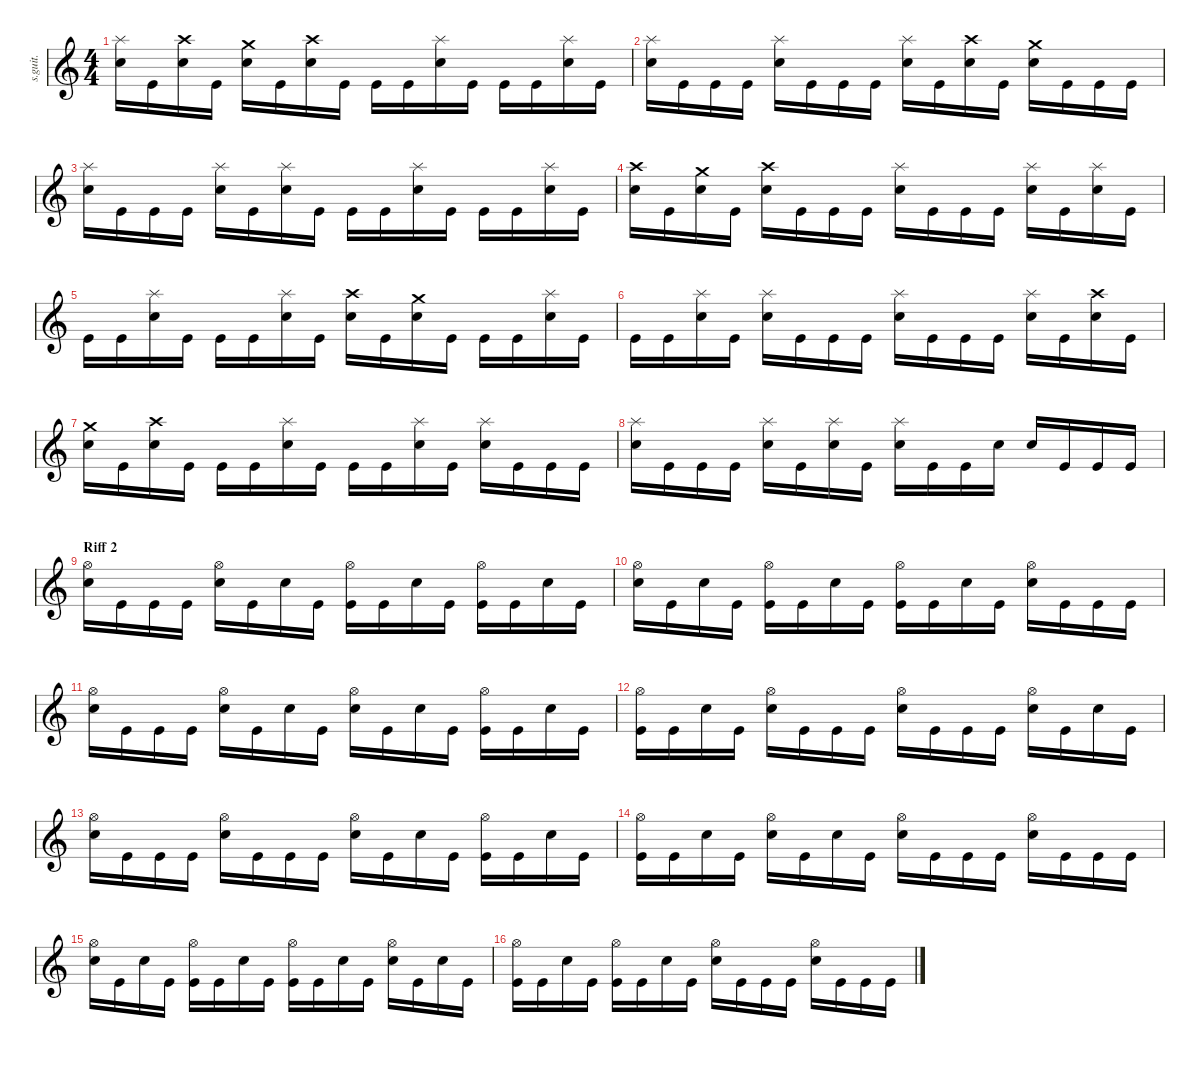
\defaultSystemsLayout 4
\hideDynamics
\bracketExtendMode nobrackets
\track ("Drumkit" "s.guit.") {instrument percussion}
\staff {score}
\articulation defaults
\ts (4 4)
\tempo (133 hide)
\clef g2
\ks c
("Splash (hit)" "Snare (hit) 2").16{lyrics (0 "") lyrics (1 "") lyrics (2 "") lyrics (3 "") lyrics (4 "") dy f} "Kick (hit)".16{lyrics (0 "") lyrics (1 "") lyrics (2 "") lyrics (3 "") lyrics (4 "")} ("Crash high (hit)" "Snare (hit) 2").16{lyrics (0 "") lyrics (1 "") lyrics (2 "") lyrics (3 "") lyrics (4 "")} "Kick (hit)".16{lyrics (0 "") lyrics (1 "") lyrics (2 "") lyrics (3 "") lyrics (4 "")} ("Crash medium (hit)" "Snare (hit) 2").16{lyrics (0 "") lyrics (1 "") lyrics (2 "") lyrics (3 "") lyrics (4 "")} "Kick (hit)".16{lyrics (0 "") lyrics (1 "") lyrics (2 "") lyrics (3 "") lyrics (4 "")} ("Crash high (hit)" "Snare (hit) 2").16{lyrics (0 "") lyrics (1 "") lyrics (2 "") lyrics (3 "") lyrics (4 "")} "Kick (hit)".16{lyrics (0 "") lyrics (1 "") lyrics (2 "") lyrics (3 "") lyrics (4 "")} "Kick (hit)".16{lyrics (0 "") lyrics (1 "") lyrics (2 "") lyrics (3 "") lyrics (4 "")} "Kick (hit)".16{lyrics (0 "") lyrics (1 "") lyrics (2 "") lyrics (3 "") lyrics (4 "")} ("Splash (hit)" "Snare (hit) 2").16{lyrics (0 "") lyrics (1 "") lyrics (2 "") lyrics (3 "") lyrics (4 "")} "Kick (hit)".16{lyrics (0 "") lyrics (1 "") lyrics (2 "") lyrics (3 "") lyrics (4 "")} "Kick (hit)".16{lyrics (0 "") lyrics (1 "") lyrics (2 "") lyrics (3 "") lyrics (4 "")} "Kick (hit)".16{lyrics (0 "") lyrics (1 "") lyrics (2 "") lyrics (3 "") lyrics (4 "")} ("Splash (hit)" "Snare (hit) 2").16{lyrics (0 "") lyrics (1 "") lyrics (2 "") lyrics (3 "") lyrics (4 "")} "Kick (hit)".16{lyrics (0 "") lyrics (1 "") lyrics (2 "") lyrics (3 "") lyrics (4 "")} |
("Splash (hit)" "Snare (hit) 2").16{lyrics (0 "") lyrics (1 "") lyrics (2 "") lyrics (3 "") lyrics (4 "")} "Kick (hit)".16{lyrics (0 "") lyrics (1 "") lyrics (2 "") lyrics (3 "") lyrics (4 "")} "Kick (hit)".16{lyrics (0 "") lyrics (1 "") lyrics (2 "") lyrics (3 "") lyrics (4 "")} "Kick (hit)".16{lyrics (0 "") lyrics (1 "") lyrics (2 "") lyrics (3 "") lyrics (4 "")} ("Splash (hit)" "Snare (hit) 2").16{lyrics (0 "") lyrics (1 "") lyrics (2 "") lyrics (3 "") lyrics (4 "")} "Kick (hit)".16{lyrics (0 "") lyrics (1 "") lyrics (2 "") lyrics (3 "") lyrics (4 "")} "Kick (hit)".16{lyrics (0 "") lyrics (1 "") lyrics (2 "") lyrics (3 "") lyrics (4 "")} "Kick (hit)".16{lyrics (0 "") lyrics (1 "") lyrics (2 "") lyrics (3 "") lyrics (4 "")} ("Splash (hit)" "Snare (hit) 2").16{lyrics (0 "") lyrics (1 "") lyrics (2 "") lyrics (3 "") lyrics (4 "")} "Kick (hit)".16{lyrics (0 "") lyrics (1 "") lyrics (2 "") lyrics (3 "") lyrics (4 "")} ("Crash high (hit)" "Snare (hit) 2").16{lyrics (0 "") lyrics (1 "") lyrics (2 "") lyrics (3 "") lyrics (4 "")} "Kick (hit)".16{lyrics (0 "") lyrics (1 "") lyrics (2 "") lyrics (3 "") lyrics (4 "")} ("Crash medium (hit)" "Snare (hit) 2").16{lyrics (0 "") lyrics (1 "") lyrics (2 "") lyrics (3 "") lyrics (4 "")} "Kick (hit)".16{lyrics (0 "") lyrics (1 "") lyrics (2 "") lyrics (3 "") lyrics (4 "")} "Kick (hit)".16{lyrics (0 "") lyrics (1 "") lyrics (2 "") lyrics (3 "") lyrics (4 "")} "Kick (hit)".16{lyrics (0 "") lyrics (1 "") lyrics (2 "") lyrics (3 "") lyrics (4 "")} |
("Splash (hit)" "Snare (hit) 2").16{lyrics (0 "") lyrics (1 "") lyrics (2 "") lyrics (3 "") lyrics (4 "")} "Kick (hit)".16{lyrics (0 "") lyrics (1 "") lyrics (2 "") lyrics (3 "") lyrics (4 "")} "Kick (hit)".16{lyrics (0 "") lyrics (1 "") lyrics (2 "") lyrics (3 "") lyrics (4 "")} "Kick (hit)".16{lyrics (0 "") lyrics (1 "") lyrics (2 "") lyrics (3 "") lyrics (4 "")} ("Splash (hit)" "Snare (hit) 2").16{lyrics (0 "") lyrics (1 "") lyrics (2 "") lyrics (3 "") lyrics (4 "")} "Kick (hit)".16{lyrics (0 "") lyrics (1 "") lyrics (2 "") lyrics (3 "") lyrics (4 "")} ("Splash (hit)" "Snare (hit) 2").16{lyrics (0 "") lyrics (1 "") lyrics (2 "") lyrics (3 "") lyrics (4 "")} "Kick (hit)".16{lyrics (0 "") lyrics (1 "") lyrics (2 "") lyrics (3 "") lyrics (4 "")} "Kick (hit)".16{lyrics (0 "") lyrics (1 "") lyrics (2 "") lyrics (3 "") lyrics (4 "")} "Kick (hit)".16{lyrics (0 "") lyrics (1 "") lyrics (2 "") lyrics (3 "") lyrics (4 "")} ("Splash (hit)" "Snare (hit) 2").16{lyrics (0 "") lyrics (1 "") lyrics (2 "") lyrics (3 "") lyrics (4 "")} "Kick (hit)".16{lyrics (0 "") lyrics (1 "") lyrics (2 "") lyrics (3 "") lyrics (4 "")} "Kick (hit)".16{lyrics (0 "") lyrics (1 "") lyrics (2 "") lyrics (3 "") lyrics (4 "")} "Kick (hit)".16{lyrics (0 "") lyrics (1 "") lyrics (2 "") lyrics (3 "") lyrics (4 "")} ("Splash (hit)" "Snare (hit) 2").16{lyrics (0 "") lyrics (1 "") lyrics (2 "") lyrics (3 "") lyrics (4 "")} "Kick (hit)".16{lyrics (0 "") lyrics (1 "") lyrics (2 "") lyrics (3 "") lyrics (4 "")} |
("Crash high (hit)" "Snare (hit) 2").16{lyrics (0 "") lyrics (1 "") lyrics (2 "") lyrics (3 "") lyrics (4 "")} "Kick (hit)".16{lyrics (0 "") lyrics (1 "") lyrics (2 "") lyrics (3 "") lyrics (4 "")} ("Crash medium (hit)" "Snare (hit) 2").16{lyrics (0 "") lyrics (1 "") lyrics (2 "") lyrics (3 "") lyrics (4 "")} "Kick (hit)".16{lyrics (0 "") lyrics (1 "") lyrics (2 "") lyrics (3 "") lyrics (4 "")} ("Crash high (hit)" "Snare (hit) 2").16{lyrics (0 "") lyrics (1 "") lyrics (2 "") lyrics (3 "") lyrics (4 "")} "Kick (hit)".16{lyrics (0 "") lyrics (1 "") lyrics (2 "") lyrics (3 "") lyrics (4 "")} "Kick (hit)".16{lyrics (0 "") lyrics (1 "") lyrics (2 "") lyrics (3 "") lyrics (4 "")} "Kick (hit)".16{lyrics (0 "") lyrics (1 "") lyrics (2 "") lyrics (3 "") lyrics (4 "")} ("Splash (hit)" "Snare (hit) 2").16{lyrics (0 "") lyrics (1 "") lyrics (2 "") lyrics (3 "") lyrics (4 "")} "Kick (hit)".16{lyrics (0 "") lyrics (1 "") lyrics (2 "") lyrics (3 "") lyrics (4 "")} "Kick (hit)".16{lyrics (0 "") lyrics (1 "") lyrics (2 "") lyrics (3 "") lyrics (4 "")} "Kick (hit)".16{lyrics (0 "") lyrics (1 "") lyrics (2 "") lyrics (3 "") lyrics (4 "")} ("Splash (hit)" "Snare (hit) 2").16{lyrics (0 "") lyrics (1 "") lyrics (2 "") lyrics (3 "") lyrics (4 "")} "Kick (hit)".16{lyrics (0 "") lyrics (1 "") lyrics (2 "") lyrics (3 "") lyrics (4 "")} ("Splash (hit)" "Snare (hit) 2").16{lyrics (0 "") lyrics (1 "") lyrics (2 "") lyrics (3 "") lyrics (4 "")} "Kick (hit)".16{lyrics (0 "") lyrics (1 "") lyrics (2 "") lyrics (3 "") lyrics (4 "")} |
"Kick (hit)".16{lyrics (0 "") lyrics (1 "") lyrics (2 "") lyrics (3 "") lyrics (4 "")} "Kick (hit)".16{lyrics (0 "") lyrics (1 "") lyrics (2 "") lyrics (3 "") lyrics (4 "")} ("Splash (hit)" "Snare (hit) 2").16{lyrics (0 "") lyrics (1 "") lyrics (2 "") lyrics (3 "") lyrics (4 "")} "Kick (hit)".16{lyrics (0 "") lyrics (1 "") lyrics (2 "") lyrics (3 "") lyrics (4 "")} "Kick (hit)".16{lyrics (0 "") lyrics (1 "") lyrics (2 "") lyrics (3 "") lyrics (4 "")} "Kick (hit)".16{lyrics (0 "") lyrics (1 "") lyrics (2 "") lyrics (3 "") lyrics (4 "")} ("Splash (hit)" "Snare (hit) 2").16{lyrics (0 "") lyrics (1 "") lyrics (2 "") lyrics (3 "") lyrics (4 "")} "Kick (hit)".16{lyrics (0 "") lyrics (1 "") lyrics (2 "") lyrics (3 "") lyrics (4 "")} ("Crash high (hit)" "Snare (hit) 2").16{lyrics (0 "") lyrics (1 "") lyrics (2 "") lyrics (3 "") lyrics (4 "")} "Kick (hit)".16{lyrics (0 "") lyrics (1 "") lyrics (2 "") lyrics (3 "") lyrics (4 "")} ("Crash medium (hit)" "Snare (hit) 2").16{lyrics (0 "") lyrics (1 "") lyrics (2 "") lyrics (3 "") lyrics (4 "")} "Kick (hit)".16{lyrics (0 "") lyrics (1 "") lyrics (2 "") lyrics (3 "") lyrics (4 "")} "Kick (hit)".16{lyrics (0 "") lyrics (1 "") lyrics (2 "") lyrics (3 "") lyrics (4 "")} "Kick (hit)".16{lyrics (0 "") lyrics (1 "") lyrics (2 "") lyrics (3 "") lyrics (4 "")} ("Splash (hit)" "Snare (hit) 2").16{lyrics (0 "") lyrics (1 "") lyrics (2 "") lyrics (3 "") lyrics (4 "")} "Kick (hit)".16{lyrics (0 "") lyrics (1 "") lyrics (2 "") lyrics (3 "") lyrics (4 "")} |
"Kick (hit)".16{lyrics (0 "") lyrics (1 "") lyrics (2 "") lyrics (3 "") lyrics (4 "")} "Kick (hit)".16{lyrics (0 "") lyrics (1 "") lyrics (2 "") lyrics (3 "") lyrics (4 "")} ("Splash (hit)" "Snare (hit) 2").16{lyrics (0 "") lyrics (1 "") lyrics (2 "") lyrics (3 "") lyrics (4 "")} "Kick (hit)".16{lyrics (0 "") lyrics (1 "") lyrics (2 "") lyrics (3 "") lyrics (4 "")} ("Splash (hit)" "Snare (hit) 2").16{lyrics (0 "") lyrics (1 "") lyrics (2 "") lyrics (3 "") lyrics (4 "")} "Kick (hit)".16{lyrics (0 "") lyrics (1 "") lyrics (2 "") lyrics (3 "") lyrics (4 "")} "Kick (hit)".16{lyrics (0 "") lyrics (1 "") lyrics (2 "") lyrics (3 "") lyrics (4 "")} "Kick (hit)".16{lyrics (0 "") lyrics (1 "") lyrics (2 "") lyrics (3 "") lyrics (4 "")} ("Splash (hit)" "Snare (hit) 2").16{lyrics (0 "") lyrics (1 "") lyrics (2 "") lyrics (3 "") lyrics (4 "")} "Kick (hit)".16{lyrics (0 "") lyrics (1 "") lyrics (2 "") lyrics (3 "") lyrics (4 "")} "Kick (hit)".16{lyrics (0 "") lyrics (1 "") lyrics (2 "") lyrics (3 "") lyrics (4 "")} "Kick (hit)".16{lyrics (0 "") lyrics (1 "") lyrics (2 "") lyrics (3 "") lyrics (4 "")} ("Splash (hit)" "Snare (hit) 2").16{lyrics (0 "") lyrics (1 "") lyrics (2 "") lyrics (3 "") lyrics (4 "")} "Kick (hit)".16{lyrics (0 "") lyrics (1 "") lyrics (2 "") lyrics (3 "") lyrics (4 "")} ("Crash high (hit)" "Snare (hit) 2").16{lyrics (0 "") lyrics (1 "") lyrics (2 "") lyrics (3 "") lyrics (4 "")} "Kick (hit)".16{lyrics (0 "") lyrics (1 "") lyrics (2 "") lyrics (3 "") lyrics (4 "")} |
("Crash medium (hit)" "Snare (hit) 2").16{lyrics (0 "") lyrics (1 "") lyrics (2 "") lyrics (3 "") lyrics (4 "")} "Kick (hit)".16{lyrics (0 "") lyrics (1 "") lyrics (2 "") lyrics (3 "") lyrics (4 "")} ("Crash high (hit)" "Snare (hit) 2").16{lyrics (0 "") lyrics (1 "") lyrics (2 "") lyrics (3 "") lyrics (4 "")} "Kick (hit)".16{lyrics (0 "") lyrics (1 "") lyrics (2 "") lyrics (3 "") lyrics (4 "")} "Kick (hit)".16{lyrics (0 "") lyrics (1 "") lyrics (2 "") lyrics (3 "") lyrics (4 "")} "Kick (hit)".16{lyrics (0 "") lyrics (1 "") lyrics (2 "") lyrics (3 "") lyrics (4 "")} ("Splash (hit)" "Snare (hit) 2").16{lyrics (0 "") lyrics (1 "") lyrics (2 "") lyrics (3 "") lyrics (4 "")} "Kick (hit)".16{lyrics (0 "") lyrics (1 "") lyrics (2 "") lyrics (3 "") lyrics (4 "")} "Kick (hit)".16{lyrics (0 "") lyrics (1 "") lyrics (2 "") lyrics (3 "") lyrics (4 "")} "Kick (hit)".16{lyrics (0 "") lyrics (1 "") lyrics (2 "") lyrics (3 "") lyrics (4 "")} ("Splash (hit)" "Snare (hit) 2").16{lyrics (0 "") lyrics (1 "") lyrics (2 "") lyrics (3 "") lyrics (4 "")} "Kick (hit)".16{lyrics (0 "") lyrics (1 "") lyrics (2 "") lyrics (3 "") lyrics (4 "")} ("Splash (hit)" "Snare (hit) 2").16{lyrics (0 "") lyrics (1 "") lyrics (2 "") lyrics (3 "") lyrics (4 "")} "Kick (hit)".16{lyrics (0 "") lyrics (1 "") lyrics (2 "") lyrics (3 "") lyrics (4 "")} "Kick (hit)".16{lyrics (0 "") lyrics (1 "") lyrics (2 "") lyrics (3 "") lyrics (4 "")} "Kick (hit)".16{lyrics (0 "") lyrics (1 "") lyrics (2 "") lyrics (3 "") lyrics (4 "")} |
("Splash (hit)" "Snare (hit) 2").16{lyrics (0 "") lyrics (1 "") lyrics (2 "") lyrics (3 "") lyrics (4 "")} "Kick (hit)".16{lyrics (0 "") lyrics (1 "") lyrics (2 "") lyrics (3 "") lyrics (4 "")} "Kick (hit)".16{lyrics (0 "") lyrics (1 "") lyrics (2 "") lyrics (3 "") lyrics (4 "")} "Kick (hit)".16{lyrics (0 "") lyrics (1 "") lyrics (2 "") lyrics (3 "") lyrics (4 "")} ("Splash (hit)" "Snare (hit) 2").16{lyrics (0 "") lyrics (1 "") lyrics (2 "") lyrics (3 "") lyrics (4 "")} "Kick (hit)".16{lyrics (0 "") lyrics (1 "") lyrics (2 "") lyrics (3 "") lyrics (4 "")} ("Splash (hit)" "Snare (hit) 2").16{lyrics (0 "") lyrics (1 "") lyrics (2 "") lyrics (3 "") lyrics (4 "")} "Kick (hit)".16{lyrics (0 "") lyrics (1 "") lyrics (2 "") lyrics (3 "") lyrics (4 "")} ("Splash (hit)" "Snare (hit) 2").16{lyrics (0 "") lyrics (1 "") lyrics (2 "") lyrics (3 "") lyrics (4 "")} "Kick (hit)".16{lyrics (0 "") lyrics (1 "") lyrics (2 "") lyrics (3 "") lyrics (4 "")} "Kick (hit)".16{lyrics (0 "") lyrics (1 "") lyrics (2 "") lyrics (3 "") lyrics (4 "")} "Snare (hit) 2".16{lyrics (0 "") lyrics (1 "") lyrics (2 "") lyrics (3 "") lyrics (4 "")} "Snare (hit) 2".16{lyrics (0 "") lyrics (1 "") lyrics (2 "") lyrics (3 "") lyrics (4 "")} "Kick (hit)".16{lyrics (0 "") lyrics (1 "") lyrics (2 "") lyrics (3 "") lyrics (4 "")} "Kick (hit)".16{lyrics (0 "") lyrics (1 "") lyrics (2 "") lyrics (3 "") lyrics (4 "")} "Kick (hit)".16{lyrics (0 "") lyrics (1 "") lyrics (2 "") lyrics (3 "") lyrics (4 "")} |
\section ("" "Riff 2")
("Hi-Hat (open)" "Snare (hit) 2").16{lyrics (0 "") lyrics (1 "") lyrics (2 "") lyrics (3 "") lyrics (4 "")} "Kick (hit)".16{lyrics (0 "") lyrics (1 "") lyrics (2 "") lyrics (3 "") lyrics (4 "")} "Kick (hit)".16{lyrics (0 "") lyrics (1 "") lyrics (2 "") lyrics (3 "") lyrics (4 "")} "Kick (hit)".16{lyrics (0 "") lyrics (1 "") lyrics (2 "") lyrics (3 "") lyrics (4 "")} ("Hi-Hat (open)" "Snare (hit) 2").16{lyrics (0 "") lyrics (1 "") lyrics (2 "") lyrics (3 "") lyrics (4 "")} "Kick (hit)".16{lyrics (0 "") lyrics (1 "") lyrics (2 "") lyrics (3 "") lyrics (4 "")} "Snare (hit) 2".16{lyrics (0 "") lyrics (1 "") lyrics (2 "") lyrics (3 "") lyrics (4 "")} "Kick (hit)".16{lyrics (0 "") lyrics (1 "") lyrics (2 "") lyrics (3 "") lyrics (4 "")} ("Hi-Hat (open)" "Kick (hit)").16{lyrics (0 "") lyrics (1 "") lyrics (2 "") lyrics (3 "") lyrics (4 "")} "Kick (hit)".16{lyrics (0 "") lyrics (1 "") lyrics (2 "") lyrics (3 "") lyrics (4 "")} "Snare (hit) 2".16{lyrics (0 "") lyrics (1 "") lyrics (2 "") lyrics (3 "") lyrics (4 "")} "Kick (hit)".16{lyrics (0 "") lyrics (1 "") lyrics (2 "") lyrics (3 "") lyrics (4 "")} ("Hi-Hat (open)" "Kick (hit)").16{lyrics (0 "") lyrics (1 "") lyrics (2 "") lyrics (3 "") lyrics (4 "")} "Kick (hit)".16{lyrics (0 "") lyrics (1 "") lyrics (2 "") lyrics (3 "") lyrics (4 "")} "Snare (hit) 2".16{lyrics (0 "") lyrics (1 "") lyrics (2 "") lyrics (3 "") lyrics (4 "")} "Kick (hit)".16{lyrics (0 "") lyrics (1 "") lyrics (2 "") lyrics (3 "") lyrics (4 "")} |
("Hi-Hat (open)" "Snare (hit) 2").16{lyrics (0 "") lyrics (1 "") lyrics (2 "") lyrics (3 "") lyrics (4 "")} "Kick (hit)".16{lyrics (0 "") lyrics (1 "") lyrics (2 "") lyrics (3 "") lyrics (4 "")} "Snare (hit) 2".16{lyrics (0 "") lyrics (1 "") lyrics (2 "") lyrics (3 "") lyrics (4 "")} "Kick (hit)".16{lyrics (0 "") lyrics (1 "") lyrics (2 "") lyrics (3 "") lyrics (4 "")} ("Hi-Hat (open)" "Kick (hit)").16{lyrics (0 "") lyrics (1 "") lyrics (2 "") lyrics (3 "") lyrics (4 "")} "Kick (hit)".16{lyrics (0 "") lyrics (1 "") lyrics (2 "") lyrics (3 "") lyrics (4 "")} "Snare (hit) 2".16{lyrics (0 "") lyrics (1 "") lyrics (2 "") lyrics (3 "") lyrics (4 "")} "Kick (hit)".16{lyrics (0 "") lyrics (1 "") lyrics (2 "") lyrics (3 "") lyrics (4 "")} ("Hi-Hat (open)" "Kick (hit)").16{lyrics (0 "") lyrics (1 "") lyrics (2 "") lyrics (3 "") lyrics (4 "")} "Kick (hit)".16{lyrics (0 "") lyrics (1 "") lyrics (2 "") lyrics (3 "") lyrics (4 "")} "Snare (hit) 2".16{lyrics (0 "") lyrics (1 "") lyrics (2 "") lyrics (3 "") lyrics (4 "")} "Kick (hit)".16{lyrics (0 "") lyrics (1 "") lyrics (2 "") lyrics (3 "") lyrics (4 "")} ("Hi-Hat (open)" "Snare (hit) 2").16{lyrics (0 "") lyrics (1 "") lyrics (2 "") lyrics (3 "") lyrics (4 "")} "Kick (hit)".16{lyrics (0 "") lyrics (1 "") lyrics (2 "") lyrics (3 "") lyrics (4 "")} "Kick (hit)".16{lyrics (0 "") lyrics (1 "") lyrics (2 "") lyrics (3 "") lyrics (4 "")} "Kick (hit)".16{lyrics (0 "") lyrics (1 "") lyrics (2 "") lyrics (3 "") lyrics (4 "")} |
("Hi-Hat (open)" "Snare (hit) 2").16{lyrics (0 "") lyrics (1 "") lyrics (2 "") lyrics (3 "") lyrics (4 "")} "Kick (hit)".16{lyrics (0 "") lyrics (1 "") lyrics (2 "") lyrics (3 "") lyrics (4 "")} "Kick (hit)".16{lyrics (0 "") lyrics (1 "") lyrics (2 "") lyrics (3 "") lyrics (4 "")} "Kick (hit)".16{lyrics (0 "") lyrics (1 "") lyrics (2 "") lyrics (3 "") lyrics (4 "")} ("Hi-Hat (open)" "Snare (hit) 2").16{lyrics (0 "") lyrics (1 "") lyrics (2 "") lyrics (3 "") lyrics (4 "")} "Kick (hit)".16{lyrics (0 "") lyrics (1 "") lyrics (2 "") lyrics (3 "") lyrics (4 "")} "Snare (hit) 2".16{lyrics (0 "") lyrics (1 "") lyrics (2 "") lyrics (3 "") lyrics (4 "")} "Kick (hit)".16{lyrics (0 "") lyrics (1 "") lyrics (2 "") lyrics (3 "") lyrics (4 "")} ("Hi-Hat (open)" "Snare (hit) 2").16{lyrics (0 "") lyrics (1 "") lyrics (2 "") lyrics (3 "") lyrics (4 "")} "Kick (hit)".16{lyrics (0 "") lyrics (1 "") lyrics (2 "") lyrics (3 "") lyrics (4 "")} "Snare (hit) 2".16{lyrics (0 "") lyrics (1 "") lyrics (2 "") lyrics (3 "") lyrics (4 "")} "Kick (hit)".16{lyrics (0 "") lyrics (1 "") lyrics (2 "") lyrics (3 "") lyrics (4 "")} ("Hi-Hat (open)" "Kick (hit)").16{lyrics (0 "") lyrics (1 "") lyrics (2 "") lyrics (3 "") lyrics (4 "")} "Kick (hit)".16{lyrics (0 "") lyrics (1 "") lyrics (2 "") lyrics (3 "") lyrics (4 "")} "Snare (hit) 2".16{lyrics (0 "") lyrics (1 "") lyrics (2 "") lyrics (3 "") lyrics (4 "")} "Kick (hit)".16{lyrics (0 "") lyrics (1 "") lyrics (2 "") lyrics (3 "") lyrics (4 "")} |
("Hi-Hat (open)" "Kick (hit)").16{lyrics (0 "") lyrics (1 "") lyrics (2 "") lyrics (3 "") lyrics (4 "")} "Kick (hit)".16{lyrics (0 "") lyrics (1 "") lyrics (2 "") lyrics (3 "") lyrics (4 "")} "Snare (hit) 2".16{lyrics (0 "") lyrics (1 "") lyrics (2 "") lyrics (3 "") lyrics (4 "")} "Kick (hit)".16{lyrics (0 "") lyrics (1 "") lyrics (2 "") lyrics (3 "") lyrics (4 "")} ("Hi-Hat (open)" "Snare (hit) 2").16{lyrics (0 "") lyrics (1 "") lyrics (2 "") lyrics (3 "") lyrics (4 "")} "Kick (hit)".16{lyrics (0 "") lyrics (1 "") lyrics (2 "") lyrics (3 "") lyrics (4 "")} "Kick (hit)".16{lyrics (0 "") lyrics (1 "") lyrics (2 "") lyrics (3 "") lyrics (4 "")} "Kick (hit)".16{lyrics (0 "") lyrics (1 "") lyrics (2 "") lyrics (3 "") lyrics (4 "")} ("Hi-Hat (open)" "Snare (hit) 2").16{lyrics (0 "") lyrics (1 "") lyrics (2 "") lyrics (3 "") lyrics (4 "")} "Kick (hit)".16{lyrics (0 "") lyrics (1 "") lyrics (2 "") lyrics (3 "") lyrics (4 "")} "Kick (hit)".16{lyrics (0 "") lyrics (1 "") lyrics (2 "") lyrics (3 "") lyrics (4 "")} "Kick (hit)".16{lyrics (0 "") lyrics (1 "") lyrics (2 "") lyrics (3 "") lyrics (4 "")} ("Hi-Hat (open)" "Snare (hit) 2").16{lyrics (0 "") lyrics (1 "") lyrics (2 "") lyrics (3 "") lyrics (4 "")} "Kick (hit)".16{lyrics (0 "") lyrics (1 "") lyrics (2 "") lyrics (3 "") lyrics (4 "")} "Snare (hit) 2".16{lyrics (0 "") lyrics (1 "") lyrics (2 "") lyrics (3 "") lyrics (4 "")} "Kick (hit)".16{lyrics (0 "") lyrics (1 "") lyrics (2 "") lyrics (3 "") lyrics (4 "")} |
("Hi-Hat (open)" "Snare (hit) 2").16{lyrics (0 "") lyrics (1 "") lyrics (2 "") lyrics (3 "") lyrics (4 "")} "Kick (hit)".16{lyrics (0 "") lyrics (1 "") lyrics (2 "") lyrics (3 "") lyrics (4 "")} "Kick (hit)".16{lyrics (0 "") lyrics (1 "") lyrics (2 "") lyrics (3 "") lyrics (4 "")} "Kick (hit)".16{lyrics (0 "") lyrics (1 "") lyrics (2 "") lyrics (3 "") lyrics (4 "")} ("Hi-Hat (open)" "Snare (hit) 2").16{lyrics (0 "") lyrics (1 "") lyrics (2 "") lyrics (3 "") lyrics (4 "")} "Kick (hit)".16{lyrics (0 "") lyrics (1 "") lyrics (2 "") lyrics (3 "") lyrics (4 "")} "Kick (hit)".16{lyrics (0 "") lyrics (1 "") lyrics (2 "") lyrics (3 "") lyrics (4 "")} "Kick (hit)".16{lyrics (0 "") lyrics (1 "") lyrics (2 "") lyrics (3 "") lyrics (4 "")} ("Hi-Hat (open)" "Snare (hit) 2").16{lyrics (0 "") lyrics (1 "") lyrics (2 "") lyrics (3 "") lyrics (4 "")} "Kick (hit)".16{lyrics (0 "") lyrics (1 "") lyrics (2 "") lyrics (3 "") lyrics (4 "")} "Snare (hit) 2".16{lyrics (0 "") lyrics (1 "") lyrics (2 "") lyrics (3 "") lyrics (4 "")} "Kick (hit)".16{lyrics (0 "") lyrics (1 "") lyrics (2 "") lyrics (3 "") lyrics (4 "")} ("Hi-Hat (open)" "Kick (hit)").16{lyrics (0 "") lyrics (1 "") lyrics (2 "") lyrics (3 "") lyrics (4 "")} "Kick (hit)".16{lyrics (0 "") lyrics (1 "") lyrics (2 "") lyrics (3 "") lyrics (4 "")} "Snare (hit) 2".16{lyrics (0 "") lyrics (1 "") lyrics (2 "") lyrics (3 "") lyrics (4 "")} "Kick (hit)".16{lyrics (0 "") lyrics (1 "") lyrics (2 "") lyrics (3 "") lyrics (4 "")} |
("Hi-Hat (open)" "Kick (hit)").16{lyrics (0 "") lyrics (1 "") lyrics (2 "") lyrics (3 "") lyrics (4 "")} "Kick (hit)".16{lyrics (0 "") lyrics (1 "") lyrics (2 "") lyrics (3 "") lyrics (4 "")} "Snare (hit) 2".16{lyrics (0 "") lyrics (1 "") lyrics (2 "") lyrics (3 "") lyrics (4 "")} "Kick (hit)".16{lyrics (0 "") lyrics (1 "") lyrics (2 "") lyrics (3 "") lyrics (4 "")} ("Hi-Hat (open)" "Snare (hit) 2").16{lyrics (0 "") lyrics (1 "") lyrics (2 "") lyrics (3 "") lyrics (4 "")} "Kick (hit)".16{lyrics (0 "") lyrics (1 "") lyrics (2 "") lyrics (3 "") lyrics (4 "")} "Snare (hit) 2".16{lyrics (0 "") lyrics (1 "") lyrics (2 "") lyrics (3 "") lyrics (4 "")} "Kick (hit)".16{lyrics (0 "") lyrics (1 "") lyrics (2 "") lyrics (3 "") lyrics (4 "")} ("Hi-Hat (open)" "Snare (hit) 2").16{lyrics (0 "") lyrics (1 "") lyrics (2 "") lyrics (3 "") lyrics (4 "")} "Kick (hit)".16{lyrics (0 "") lyrics (1 "") lyrics (2 "") lyrics (3 "") lyrics (4 "")} "Kick (hit)".16{lyrics (0 "") lyrics (1 "") lyrics (2 "") lyrics (3 "") lyrics (4 "")} "Kick (hit)".16{lyrics (0 "") lyrics (1 "") lyrics (2 "") lyrics (3 "") lyrics (4 "")} ("Hi-Hat (open)" "Snare (hit) 2").16{lyrics (0 "") lyrics (1 "") lyrics (2 "") lyrics (3 "") lyrics (4 "")} "Kick (hit)".16{lyrics (0 "") lyrics (1 "") lyrics (2 "") lyrics (3 "") lyrics (4 "")} "Kick (hit)".16{lyrics (0 "") lyrics (1 "") lyrics (2 "") lyrics (3 "") lyrics (4 "")} "Kick (hit)".16{lyrics (0 "") lyrics (1 "") lyrics (2 "") lyrics (3 "") lyrics (4 "")} |
("Hi-Hat (open)" "Snare (hit) 2").16{lyrics (0 "") lyrics (1 "") lyrics (2 "") lyrics (3 "") lyrics (4 "")} "Kick (hit)".16{lyrics (0 "") lyrics (1 "") lyrics (2 "") lyrics (3 "") lyrics (4 "")} "Snare (hit) 2".16{lyrics (0 "") lyrics (1 "") lyrics (2 "") lyrics (3 "") lyrics (4 "")} "Kick (hit)".16{lyrics (0 "") lyrics (1 "") lyrics (2 "") lyrics (3 "") lyrics (4 "")} ("Hi-Hat (open)" "Kick (hit)").16{lyrics (0 "") lyrics (1 "") lyrics (2 "") lyrics (3 "") lyrics (4 "")} "Kick (hit)".16{lyrics (0 "") lyrics (1 "") lyrics (2 "") lyrics (3 "") lyrics (4 "")} "Snare (hit) 2".16{lyrics (0 "") lyrics (1 "") lyrics (2 "") lyrics (3 "") lyrics (4 "")} "Kick (hit)".16{lyrics (0 "") lyrics (1 "") lyrics (2 "") lyrics (3 "") lyrics (4 "")} ("Hi-Hat (open)" "Kick (hit)").16{lyrics (0 "") lyrics (1 "") lyrics (2 "") lyrics (3 "") lyrics (4 "")} "Kick (hit)".16{lyrics (0 "") lyrics (1 "") lyrics (2 "") lyrics (3 "") lyrics (4 "")} "Snare (hit) 2".16{lyrics (0 "") lyrics (1 "") lyrics (2 "") lyrics (3 "") lyrics (4 "")} "Kick (hit)".16{lyrics (0 "") lyrics (1 "") lyrics (2 "") lyrics (3 "") lyrics (4 "")} ("Hi-Hat (open)" "Snare (hit) 2").16{lyrics (0 "") lyrics (1 "") lyrics (2 "") lyrics (3 "") lyrics (4 "")} "Kick (hit)".16{lyrics (0 "") lyrics (1 "") lyrics (2 "") lyrics (3 "") lyrics (4 "")} "Snare (hit) 2".16{lyrics (0 "") lyrics (1 "") lyrics (2 "") lyrics (3 "") lyrics (4 "")} "Kick (hit)".16{lyrics (0 "") lyrics (1 "") lyrics (2 "") lyrics (3 "") lyrics (4 "")} |
("Hi-Hat (open)" "Kick (hit)").16{lyrics (0 "") lyrics (1 "") lyrics (2 "") lyrics (3 "") lyrics (4 "")} "Kick (hit)".16{lyrics (0 "") lyrics (1 "") lyrics (2 "") lyrics (3 "") lyrics (4 "")} "Snare (hit) 2".16{lyrics (0 "") lyrics (1 "") lyrics (2 "") lyrics (3 "") lyrics (4 "")} "Kick (hit)".16{lyrics (0 "") lyrics (1 "") lyrics (2 "") lyrics (3 "") lyrics (4 "")} ("Hi-Hat (open)" "Kick (hit)").16{lyrics (0 "") lyrics (1 "") lyrics (2 "") lyrics (3 "") lyrics (4 "")} "Kick (hit)".16{lyrics (0 "") lyrics (1 "") lyrics (2 "") lyrics (3 "") lyrics (4 "")} "Snare (hit) 2".16{lyrics (0 "") lyrics (1 "") lyrics (2 "") lyrics (3 "") lyrics (4 "")} "Kick (hit)".16{lyrics (0 "") lyrics (1 "") lyrics (2 "") lyrics (3 "") lyrics (4 "")} ("Hi-Hat (open)" "Snare (hit) 2").16{lyrics (0 "") lyrics (1 "") lyrics (2 "") lyrics (3 "") lyrics (4 "")} "Kick (hit)".16{lyrics (0 "") lyrics (1 "") lyrics (2 "") lyrics (3 "") lyrics (4 "")} "Kick (hit)".16{lyrics (0 "") lyrics (1 "") lyrics (2 "") lyrics (3 "") lyrics (4 "")} "Kick (hit)".16{lyrics (0 "") lyrics (1 "") lyrics (2 "") lyrics (3 "") lyrics (4 "")} ("Hi-Hat (open)" "Snare (hit) 2").16{lyrics (0 "") lyrics (1 "") lyrics (2 "") lyrics (3 "") lyrics (4 "")} "Kick (hit)".16{lyrics (0 "") lyrics (1 "") lyrics (2 "") lyrics (3 "") lyrics (4 "")} "Kick (hit)".16{lyrics (0 "") lyrics (1 "") lyrics (2 "") lyrics (3 "") lyrics (4 "")} "Kick (hit)".16{lyrics (0 "") lyrics (1 "") lyrics (2 "") lyrics (3 "") lyrics (4 "")}
